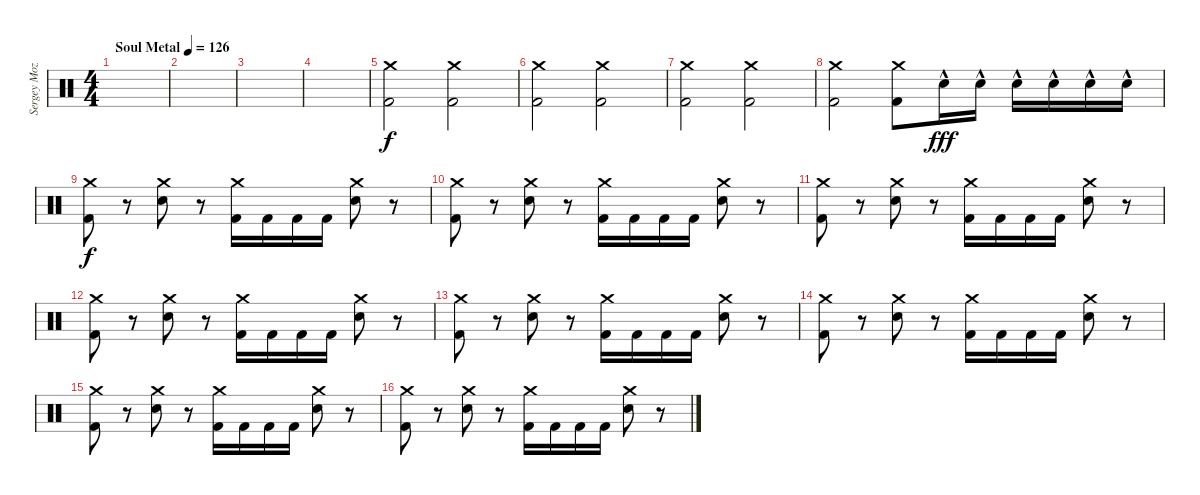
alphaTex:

\track ("Sergey Mozalev" "Sergey Moz") {instrument percussion}
\staff {score}
\articulation defaults
\ts (4 4)
\tempo (126 "Soul Metal")
\clef neutral
\ks c
|
|
|
|
("Crash medium (hit)" "Kick (hit) 2").2 ("Crash medium (hit)" "Kick (hit) 2").2 |
("Crash medium (hit)" "Kick (hit) 2").2 ("Crash medium (hit)" "Kick (hit) 2").2 |
("Crash medium (hit)" "Kick (hit) 2").2 ("Crash medium (hit)" "Kick (hit) 2").2 |
("Crash medium (hit)" "Kick (hit) 2").2 ("Crash medium (hit)" "Kick (hit) 2").8 "Electric Snare (hit)"{hac}.16{dy fff} "Electric Snare (hit)"{hac}.16 "Electric Snare (hit)"{hac}.16 "Electric Snare (hit)"{hac}.16 "Electric Snare (hit)"{hac}.16 "Electric Snare (hit)"{hac}.16 |
("Crash medium (hit)" "Kick (hit) 2").8{dy f} r.8 ("Crash medium (hit)" "Electric Snare (hit)").8 r.8 ("Crash medium (hit)" "Kick (hit) 2").16 "Kick (hit) 2".16 "Kick (hit) 2".16 "Kick (hit) 2".16 ("Crash medium (hit)" "Electric Snare (hit)").8 r.8 |
("Crash medium (hit)" "Kick (hit) 2").8 r.8 ("Crash medium (hit)" "Electric Snare (hit)").8 r.8 ("Crash medium (hit)" "Kick (hit) 2").16 "Kick (hit) 2".16 "Kick (hit) 2".16 "Kick (hit) 2".16 ("Crash medium (hit)" "Electric Snare (hit)").8 r.8 |
("Crash medium (hit)" "Kick (hit) 2").8 r.8 ("Crash medium (hit)" "Electric Snare (hit)").8 r.8 ("Crash medium (hit)" "Kick (hit) 2").16 "Kick (hit) 2".16 "Kick (hit) 2".16 "Kick (hit) 2".16 ("Crash medium (hit)" "Electric Snare (hit)").8 r.8 |
("Crash medium (hit)" "Kick (hit) 2").8 r.8 ("Crash medium (hit)" "Electric Snare (hit)").8 r.8 ("Crash medium (hit)" "Kick (hit) 2").16 "Kick (hit) 2".16 "Kick (hit) 2".16 "Kick (hit) 2".16 ("Crash medium (hit)" "Electric Snare (hit)").8 r.8 |
("Crash medium (hit)" "Kick (hit) 2").8 r.8 ("Crash medium (hit)" "Electric Snare (hit)").8 r.8 ("Crash medium (hit)" "Kick (hit) 2").16 "Kick (hit) 2".16 "Kick (hit) 2".16 "Kick (hit) 2".16 ("Crash medium (hit)" "Electric Snare (hit)").8 r.8 |
("Crash medium (hit)" "Kick (hit) 2").8 r.8 ("Crash medium (hit)" "Electric Snare (hit)").8 r.8 ("Crash medium (hit)" "Kick (hit) 2").16 "Kick (hit) 2".16 "Kick (hit) 2".16 "Kick (hit) 2".16 ("Crash medium (hit)" "Electric Snare (hit)").8 r.8 |
("Crash medium (hit)" "Kick (hit) 2").8 r.8 ("Crash medium (hit)" "Electric Snare (hit)").8 r.8 ("Crash medium (hit)" "Kick (hit) 2").16 "Kick (hit) 2".16 "Kick (hit) 2".16 "Kick (hit) 2".16 ("Crash medium (hit)" "Electric Snare (hit)").8 r.8 |
("Crash medium (hit)" "Kick (hit) 2").8 r.8 ("Crash medium (hit)" "Electric Snare (hit)").8 r.8 ("Crash medium (hit)" "Kick (hit) 2").16 "Kick (hit) 2".16 "Kick (hit) 2".16 "Kick (hit) 2".16 ("Crash medium (hit)" "Electric Snare (hit)").8 r.8
